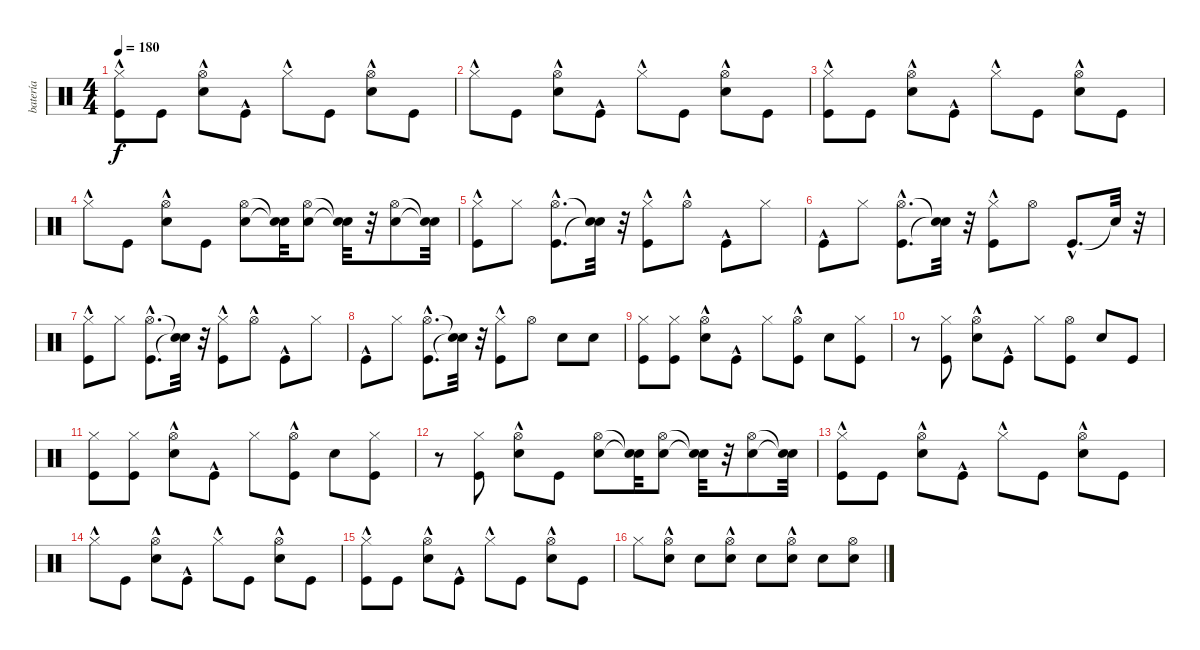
\track ("batería" "batería") {instrument percussion}
\staff {score}
\articulation defaults
\ts (4 4)
\tempo 180
\clef neutral
\ks c
("Kick (hit)" "Hi-Hat (closed)"{hac}).8{dy f} "Kick (hit)".8 ("Electric Snare (hit)" "Hi-Hat (open)"{hac}).8 "Kick (hit)"{hac}.8 "Hi-Hat (closed)"{hac}.8 "Kick (hit)".8 ("Electric Snare (hit)" "Hi-Hat (open)"{hac}).8 "Kick (hit)".8 |
"Hi-Hat (closed)"{hac}.8 "Kick (hit)".8 ("Electric Snare (hit)" "Hi-Hat (open)"{hac}).8 "Kick (hit)"{hac}.8 "Hi-Hat (closed)"{hac}.8 "Kick (hit)".8 ("Electric Snare (hit)" "Hi-Hat (open)"{hac}).8 "Kick (hit)".8 |
("Kick (hit)" "Hi-Hat (closed)"{hac}).8 "Kick (hit)".8 ("Electric Snare (hit)" "Hi-Hat (open)"{hac}).8 "Kick (hit)"{hac}.8 "Hi-Hat (closed)"{hac}.8 "Kick (hit)".8 ("Electric Snare (hit)" "Hi-Hat (open)"{hac}).8 "Kick (hit)".8 |
"Hi-Hat (closed)"{hac}.8 "Kick (hit)".8 ("Electric Snare (hit)" "Hi-Hat (open)"{hac}).8 "Kick (hit)".8 ("Electric Snare (hit)" "Hi-Hat (open)").8 ("Snare (hit)"{t} "Snare (hit)"{t}).32 ("Electric Snare (hit)" "Hi-Hat (open)").8 ("Snare (hit)"{t} "Snare (hit)"{t}).32 r.32 ("Electric Snare (hit)" "Hi-Hat (open)").8 ("Snare (hit)"{t} "Snare (hit)"{t}).32 |
("Kick (hit)"{hac} "Hi-Hat (closed)").8 "Hi-Hat (closed)".8 ("Kick (hit)"{hac} "Hi-Hat (open)"{hac}).8{d} ("Snare (hit)"{t} "Snare (hit)"{t}).32 r.32 ("Kick (hit)"{hac} "Hi-Hat (closed)").8 "Hi-Hat (open)"{hac}.8 "Kick (hit)"{hac}.8 "Hi-Hat (closed)".8 |
"Kick (hit)"{hac}.8 "Hi-Hat (closed)".8 ("Kick (hit)"{hac} "Hi-Hat (open)"{hac}).8{d} ("Snare (hit)"{t} "Snare (hit)"{t}).32 r.32 ("Kick (hit)"{hac} "Hi-Hat (closed)").8 "Hi-Hat (open)".8 "Kick (hit)"{hac}.8{d} "Snare (hit)"{t}.32 r.32 |
("Kick (hit)"{hac} "Hi-Hat (closed)").8 "Hi-Hat (closed)".8 ("Kick (hit)"{hac} "Hi-Hat (open)"{hac}).8{d} ("Snare (hit)"{t} "Snare (hit)"{t}).32 r.32 ("Kick (hit)"{hac} "Hi-Hat (closed)").8 "Hi-Hat (open)"{hac}.8 "Kick (hit)"{hac}.8 "Hi-Hat (closed)".8 |
"Kick (hit)"{hac}.8 "Hi-Hat (closed)".8 ("Kick (hit)"{hac} "Hi-Hat (open)"{hac}).8{d} ("Snare (hit)"{t} "Snare (hit)"{t}).32 r.32 ("Kick (hit)"{hac} "Hi-Hat (closed)").8 "Hi-Hat (open)".8 "Electric Snare (hit)".8 "Electric Snare (hit)".8 |
("Kick (hit)" "Hi-Hat (closed)").8 ("Kick (hit)" "Hi-Hat (closed)").8 ("Electric Snare (hit)" "Hi-Hat (open)"{hac}).8 "Kick (hit)"{hac}.8 "Hi-Hat (closed)".8 ("Kick (hit)" "Hi-Hat (open)"{hac}).8 "Electric Snare (hit)".8 ("Kick (hit)" "Hi-Hat (closed)").8 |
r.8 ("Kick (hit)" "Hi-Hat (closed)").8 ("Electric Snare (hit)" "Hi-Hat (open)"{hac}).8 "Kick (hit)"{hac}.8 "Hi-Hat (closed)".8 ("Kick (hit)" "Hi-Hat (open)").8 "Electric Snare (hit)".8 "Kick (hit)".8 |
("Kick (hit)" "Hi-Hat (closed)").8 ("Kick (hit)" "Hi-Hat (closed)").8 ("Electric Snare (hit)" "Hi-Hat (open)"{hac}).8 "Kick (hit)"{hac}.8 "Hi-Hat (closed)".8 ("Kick (hit)" "Hi-Hat (open)"{hac}).8 "Electric Snare (hit)".8 ("Kick (hit)" "Hi-Hat (closed)").8 |
r.8 ("Kick (hit)" "Hi-Hat (closed)").8 ("Electric Snare (hit)" "Hi-Hat (open)"{hac}).8 "Kick (hit)".8 ("Electric Snare (hit)" "Hi-Hat (open)").8 ("Snare (hit)"{t} "Snare (hit)"{t}).32 ("Electric Snare (hit)" "Hi-Hat (open)").8 ("Snare (hit)"{t} "Snare (hit)"{t}).32 r.32 ("Electric Snare (hit)" "Hi-Hat (open)").8 ("Snare (hit)"{t} "Snare (hit)"{t}).32 |
("Kick (hit)" "Hi-Hat (closed)"{hac}).8 "Kick (hit)".8 ("Electric Snare (hit)" "Hi-Hat (open)"{hac}).8 "Kick (hit)"{hac}.8 "Hi-Hat (closed)"{hac}.8 "Kick (hit)".8 ("Electric Snare (hit)" "Hi-Hat (open)"{hac}).8 "Kick (hit)".8 |
"Hi-Hat (closed)"{hac}.8 "Kick (hit)".8 ("Electric Snare (hit)" "Hi-Hat (open)"{hac}).8 "Kick (hit)"{hac}.8 "Hi-Hat (closed)"{hac}.8 "Kick (hit)".8 ("Electric Snare (hit)" "Hi-Hat (open)"{hac}).8 "Kick (hit)".8 |
("Kick (hit)" "Hi-Hat (closed)"{hac}).8 "Kick (hit)".8 ("Electric Snare (hit)" "Hi-Hat (open)"{hac}).8 "Kick (hit)"{hac}.8 "Hi-Hat (closed)"{hac}.8 "Kick (hit)".8 ("Electric Snare (hit)" "Hi-Hat (open)"{hac}).8 "Kick (hit)".8 |
"Hi-Hat (closed)".8 ("Electric Snare (hit)" "Hi-Hat (open)"{hac}).8 "Electric Snare (hit)".8 ("Electric Snare (hit)" "Hi-Hat (open)"{hac}).8 "Electric Snare (hit)".8 ("Electric Snare (hit)" "Hi-Hat (open)"{hac}).8 "Electric Snare (hit)".8 ("Electric Snare (hit)" "Hi-Hat (open)").8
